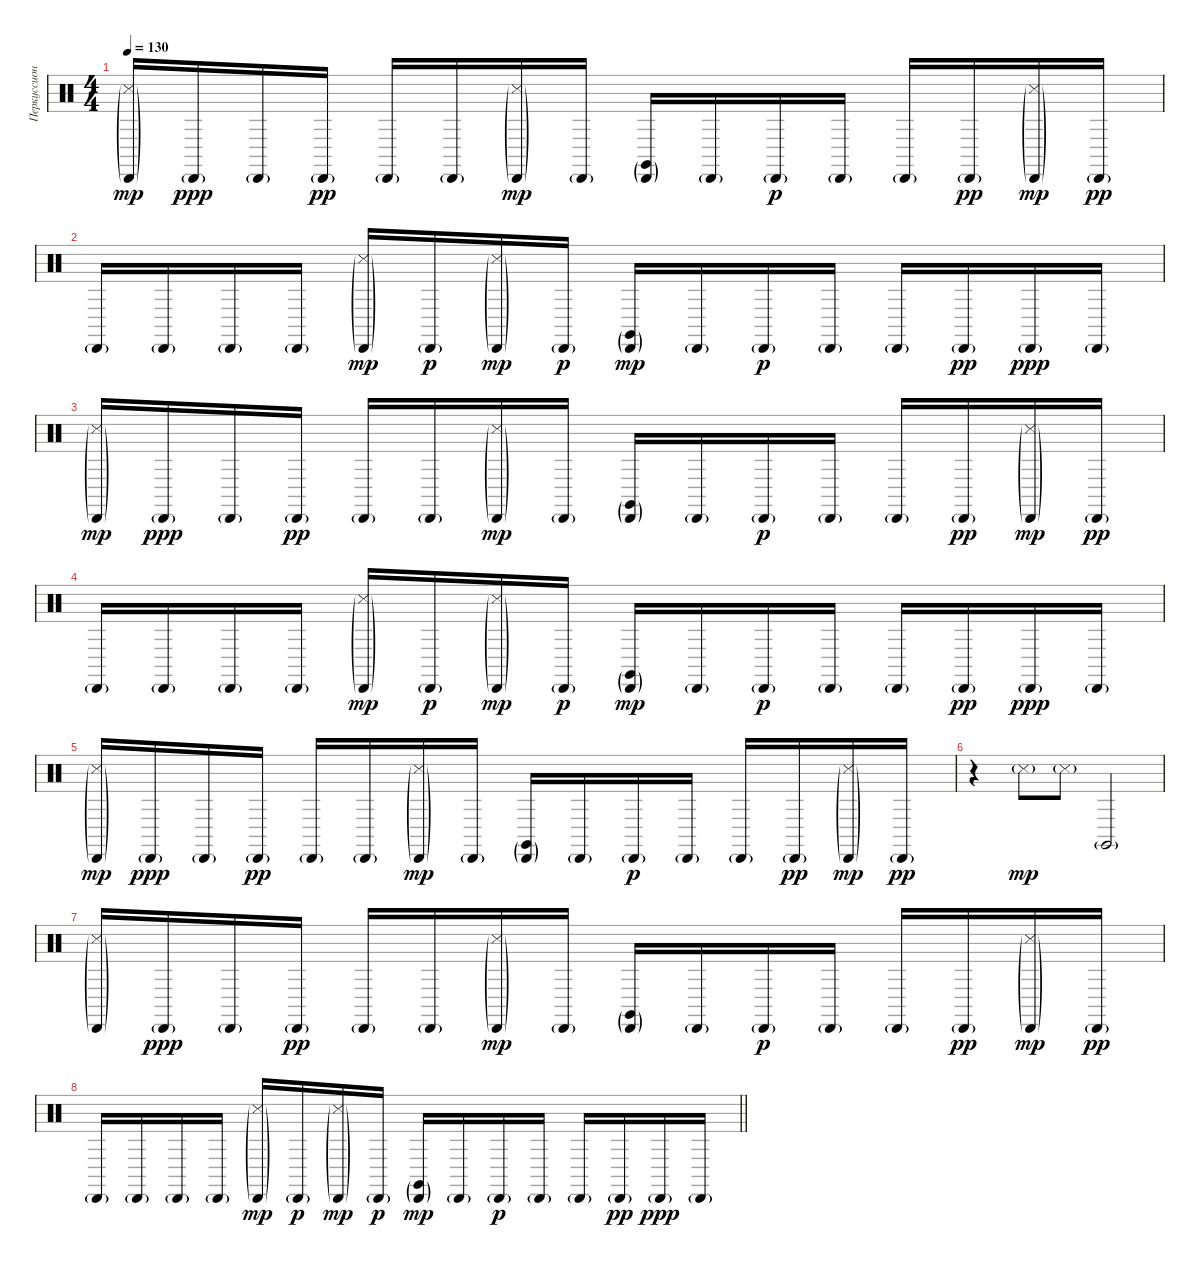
\track ("Перкуссионный Синтез" "Перкуссион") {instrument percussion}
\staff {score}
\articulation defaults
\ts (4 4)
\tempo 130
\clef neutral
\ks c
("Cabasa (hit)"{g} "Metronome (hit)"{g}).16{dy mp} "Cabasa (hit)"{g}.16{dy ppp} "Cabasa (hit)"{g}.16 "Cabasa (hit)"{g}.16{dy pp} "Cabasa (hit)"{g}.16 "Cabasa (hit)"{g}.16 ("Cabasa (hit)"{g} "Metronome (hit)"{g}).16{dy mp} "Cabasa (hit)"{g}.16 ("Cabasa (hit)"{g} "Claves (hit)"{g}).16 "Cabasa (hit)"{g}.16 "Cabasa (hit)"{g}.16{dy p} "Cabasa (hit)"{g}.16 "Cabasa (hit)"{g}.16 "Cabasa (hit)"{g}.16{dy pp} ("Cabasa (hit)"{g} "Metronome (hit)"{g}).16{dy mp} "Cabasa (hit)"{g}.16{dy pp} |
"Cabasa (hit)"{g}.16 "Cabasa (hit)"{g}.16 "Cabasa (hit)"{g}.16 "Cabasa (hit)"{g}.16 ("Cabasa (hit)"{g} "Metronome (hit)"{g}).16{dy mp} "Cabasa (hit)"{g}.16{dy p} ("Cabasa (hit)"{g} "Metronome (hit)"{g}).16{dy mp} "Cabasa (hit)"{g}.16{dy p} ("Cabasa (hit)"{g} "Claves (hit)"{g}).16{dy mp} "Cabasa (hit)"{g}.16 "Cabasa (hit)"{g}.16{dy p} "Cabasa (hit)"{g}.16 "Cabasa (hit)"{g}.16 "Cabasa (hit)"{g}.16{dy pp} "Cabasa (hit)"{g}.16{dy ppp} "Cabasa (hit)"{g}.16 |
("Cabasa (hit)"{g} "Metronome (hit)"{g}).16{dy mp} "Cabasa (hit)"{g}.16{dy ppp} "Cabasa (hit)"{g}.16 "Cabasa (hit)"{g}.16{dy pp} "Cabasa (hit)"{g}.16 "Cabasa (hit)"{g}.16 ("Cabasa (hit)"{g} "Metronome (hit)"{g}).16{dy mp} "Cabasa (hit)"{g}.16 ("Cabasa (hit)"{g} "Claves (hit)"{g}).16 "Cabasa (hit)"{g}.16 "Cabasa (hit)"{g}.16{dy p} "Cabasa (hit)"{g}.16 "Cabasa (hit)"{g}.16 "Cabasa (hit)"{g}.16{dy pp} ("Cabasa (hit)"{g} "Metronome (hit)"{g}).16{dy mp} "Cabasa (hit)"{g}.16{dy pp} |
"Cabasa (hit)"{g}.16 "Cabasa (hit)"{g}.16 "Cabasa (hit)"{g}.16 "Cabasa (hit)"{g}.16 ("Cabasa (hit)"{g} "Metronome (hit)"{g}).16{dy mp} "Cabasa (hit)"{g}.16{dy p} ("Cabasa (hit)"{g} "Metronome (hit)"{g}).16{dy mp} "Cabasa (hit)"{g}.16{dy p} ("Cabasa (hit)"{g} "Claves (hit)"{g}).16{dy mp} "Cabasa (hit)"{g}.16 "Cabasa (hit)"{g}.16{dy p} "Cabasa (hit)"{g}.16 "Cabasa (hit)"{g}.16 "Cabasa (hit)"{g}.16{dy pp} "Cabasa (hit)"{g}.16{dy ppp} "Cabasa (hit)"{g}.16 |
("Cabasa (hit)"{g} "Metronome (hit)"{g}).16{dy mp} "Cabasa (hit)"{g}.16{dy ppp} "Cabasa (hit)"{g}.16 "Cabasa (hit)"{g}.16{dy pp} "Cabasa (hit)"{g}.16 "Cabasa (hit)"{g}.16 ("Cabasa (hit)"{g} "Metronome (hit)"{g}).16{dy mp} "Cabasa (hit)"{g}.16 ("Cabasa (hit)"{g} "Claves (hit)"{g}).16 "Cabasa (hit)"{g}.16 "Cabasa (hit)"{g}.16{dy p} "Cabasa (hit)"{g}.16 "Cabasa (hit)"{g}.16 "Cabasa (hit)"{g}.16{dy pp} ("Cabasa (hit)"{g} "Metronome (hit)"{g}).16{dy mp} "Cabasa (hit)"{g}.16{dy pp} |
r.4 "Metronome (hit)"{g}.8{dy mp} "Metronome (hit)"{g}.8 "Claves (hit)"{g}.2 |
("Cabasa (hit)"{g} "Metronome (hit)"{g}).16 "Cabasa (hit)"{g}.16{dy ppp} "Cabasa (hit)"{g}.16 "Cabasa (hit)"{g}.16{dy pp} "Cabasa (hit)"{g}.16 "Cabasa (hit)"{g}.16 ("Cabasa (hit)"{g} "Metronome (hit)"{g}).16{dy mp} "Cabasa (hit)"{g}.16 ("Cabasa (hit)"{g} "Claves (hit)"{g}).16 "Cabasa (hit)"{g}.16 "Cabasa (hit)"{g}.16{dy p} "Cabasa (hit)"{g}.16 "Cabasa (hit)"{g}.16 "Cabasa (hit)"{g}.16{dy pp} ("Cabasa (hit)"{g} "Metronome (hit)"{g}).16{dy mp} "Cabasa (hit)"{g}.16{dy pp} |
\barLineRight lightlight "Cabasa (hit)"{g}.16 "Cabasa (hit)"{g}.16 "Cabasa (hit)"{g}.16 "Cabasa (hit)"{g}.16
("Cabasa (hit)"{g} "Metronome (hit)"{g}).16{dy mp} "Cabasa (hit)"{g}.16{dy p} ("Cabasa (hit)"{g} "Metronome (hit)"{g}).16{dy mp} "Cabasa (hit)"{g}.16{dy p} ("Cabasa (hit)"{g} "Claves (hit)"{g}).16{dy mp} "Cabasa (hit)"{g}.16 "Cabasa (hit)"{g}.16{dy p} "Cabasa (hit)"{g}.16 "Cabasa (hit)"{g}.16 "Cabasa (hit)"{g}.16{dy pp} "Cabasa (hit)"{g}.16{dy ppp} "Cabasa (hit)"{g}.16
